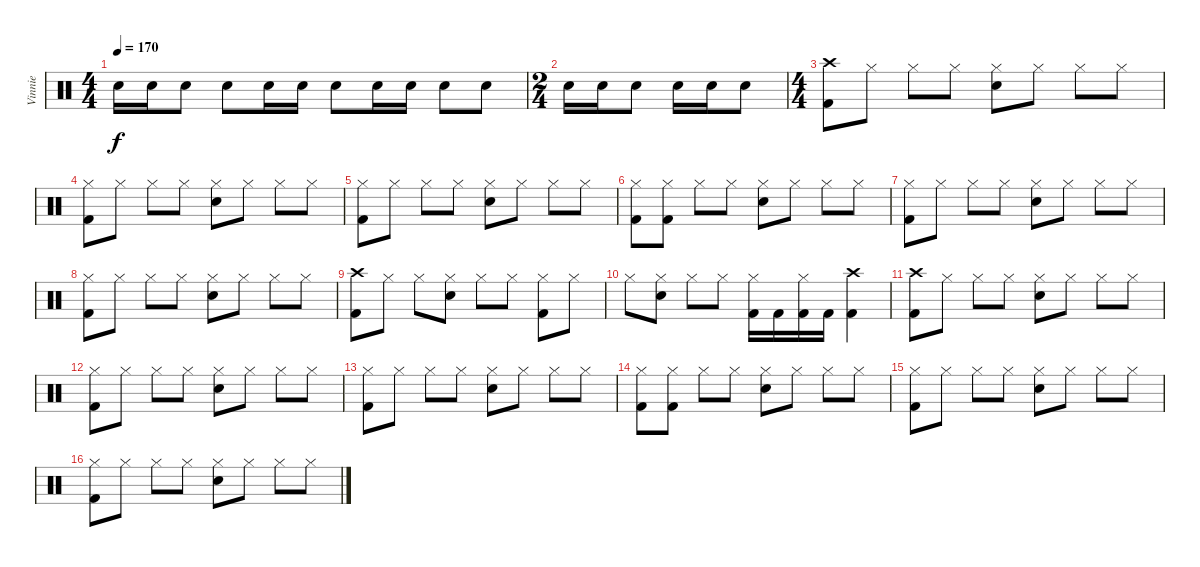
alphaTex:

\track ("Vinnie" "Vinnie") {instrument percussion}
\staff {score}
\articulation defaults
\ts (4 4)
\tempo 170
\clef neutral
\ks c "Electric Snare (hit)".16{dy f} "Electric Snare (hit)".16 "Electric Snare (hit)".8 "Electric Snare (hit)".8 "Electric Snare (hit)".16 "Electric Snare (hit)".16 "Electric Snare (hit)".8 "Electric Snare (hit)".16 "Electric Snare (hit)".16 "Electric Snare (hit)".8 "Electric Snare (hit)".8
|
\ts (2 4)
"Electric Snare (hit)".16 "Electric Snare (hit)".16 "Electric Snare (hit)".8 "Electric Snare (hit)".16 "Electric Snare (hit)".16 "Electric Snare (hit)".8 |
\ts (4 4)
("Crash high (hit)" "Kick (hit) 2").8 "Hi-Hat (closed)".8 "Hi-Hat (closed)".8 "Hi-Hat (closed)".8 ("Hi-Hat (closed)" "Electric Snare (hit)").8 "Hi-Hat (closed)".8 "Hi-Hat (closed)".8 "Hi-Hat (closed)".8 |
("Hi-Hat (closed)" "Kick (hit) 2").8 "Hi-Hat (closed)".8 "Hi-Hat (closed)".8 "Hi-Hat (closed)".8 ("Hi-Hat (closed)" "Electric Snare (hit)").8 "Hi-Hat (closed)".8 "Hi-Hat (closed)".8 "Hi-Hat (closed)".8 |
("Hi-Hat (closed)" "Kick (hit) 2").8 "Hi-Hat (closed)".8 "Hi-Hat (closed)".8 "Hi-Hat (closed)".8 ("Hi-Hat (closed)" "Electric Snare (hit)").8 "Hi-Hat (closed)".8 "Hi-Hat (closed)".8 "Hi-Hat (closed)".8 |
("Hi-Hat (closed)" "Kick (hit) 2").8 ("Hi-Hat (closed)" "Kick (hit) 2").8 "Hi-Hat (closed)".8 "Hi-Hat (closed)".8 ("Hi-Hat (closed)" "Electric Snare (hit)").8 "Hi-Hat (closed)".8 "Hi-Hat (closed)".8 "Hi-Hat (closed)".8 |
("Hi-Hat (closed)" "Kick (hit) 2").8 "Hi-Hat (closed)".8 "Hi-Hat (closed)".8 "Hi-Hat (closed)".8 ("Hi-Hat (closed)" "Electric Snare (hit)").8 "Hi-Hat (closed)".8 "Hi-Hat (closed)".8 "Hi-Hat (closed)".8 |
("Hi-Hat (closed)" "Kick (hit) 2").8 "Hi-Hat (closed)".8 "Hi-Hat (closed)".8 "Hi-Hat (closed)".8 ("Hi-Hat (closed)" "Electric Snare (hit)").8 "Hi-Hat (closed)".8 "Hi-Hat (closed)".8 "Hi-Hat (closed)".8 |
("Crash high (hit)" "Kick (hit) 2").8 "Hi-Hat (closed)".8 "Hi-Hat (closed)".8 ("Hi-Hat (closed)" "Electric Snare (hit)").8 "Hi-Hat (closed)".8 "Hi-Hat (closed)".8 ("Hi-Hat (closed)" "Kick (hit) 2").8 "Hi-Hat (closed)".8 |
"Hi-Hat (closed)".8 ("Hi-Hat (closed)" "Electric Snare (hit)").8 "Hi-Hat (closed)".8 "Hi-Hat (closed)".8 ("Hi-Hat (closed)" "Kick (hit) 2").16 "Kick (hit) 2".16 ("Hi-Hat (closed)" "Kick (hit) 2").16 "Kick (hit) 2".16 ("Crash high (hit)" "Kick (hit) 2").4 |
("Crash high (hit)" "Kick (hit) 2").8 "Hi-Hat (closed)".8 "Hi-Hat (closed)".8 "Hi-Hat (closed)".8 ("Hi-Hat (closed)" "Electric Snare (hit)").8 "Hi-Hat (closed)".8 "Hi-Hat (closed)".8 "Hi-Hat (closed)".8 |
("Hi-Hat (closed)" "Kick (hit) 2").8 "Hi-Hat (closed)".8 "Hi-Hat (closed)".8 "Hi-Hat (closed)".8 ("Hi-Hat (closed)" "Electric Snare (hit)").8 "Hi-Hat (closed)".8 "Hi-Hat (closed)".8 "Hi-Hat (closed)".8 |
("Hi-Hat (closed)" "Kick (hit) 2").8 "Hi-Hat (closed)".8 "Hi-Hat (closed)".8 "Hi-Hat (closed)".8 ("Hi-Hat (closed)" "Electric Snare (hit)").8 "Hi-Hat (closed)".8 "Hi-Hat (closed)".8 "Hi-Hat (closed)".8 |
("Hi-Hat (closed)" "Kick (hit) 2").8 ("Hi-Hat (closed)" "Kick (hit) 2").8 "Hi-Hat (closed)".8 "Hi-Hat (closed)".8 ("Hi-Hat (closed)" "Electric Snare (hit)").8 "Hi-Hat (closed)".8 "Hi-Hat (closed)".8 "Hi-Hat (closed)".8 |
("Hi-Hat (closed)" "Kick (hit) 2").8 "Hi-Hat (closed)".8 "Hi-Hat (closed)".8 "Hi-Hat (closed)".8 ("Hi-Hat (closed)" "Electric Snare (hit)").8 "Hi-Hat (closed)".8 "Hi-Hat (closed)".8 "Hi-Hat (closed)".8 |
("Hi-Hat (closed)" "Kick (hit) 2").8 "Hi-Hat (closed)".8 "Hi-Hat (closed)".8 "Hi-Hat (closed)".8 ("Hi-Hat (closed)" "Electric Snare (hit)").8 "Hi-Hat (closed)".8 "Hi-Hat (closed)".8 "Hi-Hat (closed)".8
